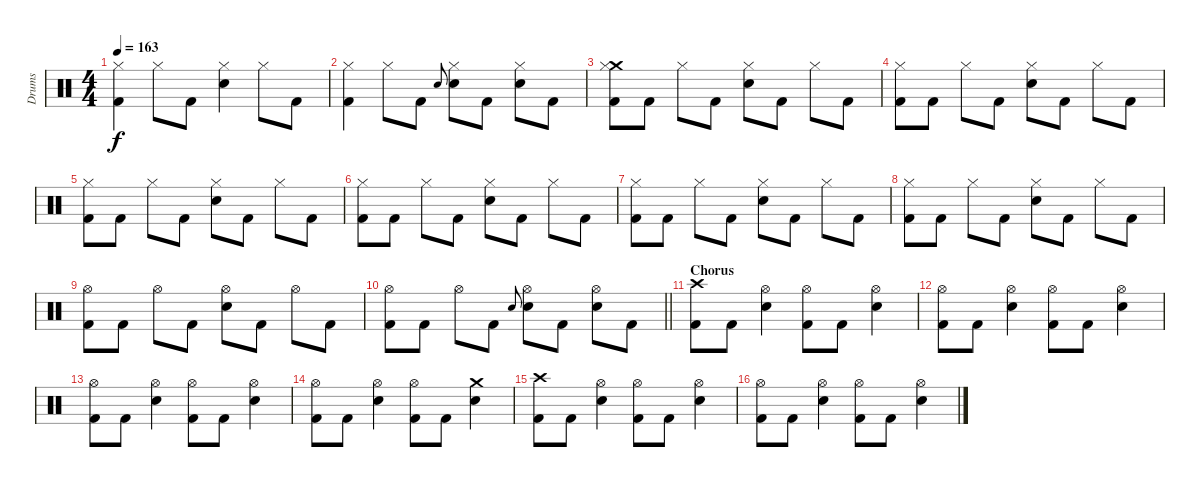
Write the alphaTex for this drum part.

\track ("Drums" "Drums") {instrument percussion}
\staff {score}
\articulation defaults
\ts (4 4)
\tempo 163
\clef neutral
\ks c
("Hi-Hat (closed)" "Kick (hit) 2").4{dy f} "Hi-Hat (closed)".8 "Kick (hit) 2".8 ("Hi-Hat (closed)" "Snare (hit) 2").4 "Hi-Hat (closed)".8 "Kick (hit) 2".8 |
("Hi-Hat (closed)" "Kick (hit) 2").4 "Hi-Hat (closed)".8 "Kick (hit) 2".8 "Snare (hit) 2".8{gr onbeat} ("Hi-Hat (closed)" "Snare (hit) 2").8 "Kick (hit) 2".8 ("Hi-Hat (closed)" "Snare (hit) 2").8 "Kick (hit) 2".8 |
("Crash medium (hit)" "Hi-Hat (closed)" "Kick (hit) 2").8 "Kick (hit) 2".8 "Hi-Hat (closed)".8 "Kick (hit) 2".8 ("Hi-Hat (closed)" "Snare (hit) 2").8 "Kick (hit) 2".8 "Hi-Hat (closed)".8 "Kick (hit) 2".8 |
("Hi-Hat (closed)" "Kick (hit) 2").8 "Kick (hit) 2".8 "Hi-Hat (closed)".8 "Kick (hit) 2".8 ("Hi-Hat (closed)" "Snare (hit) 2").8 "Kick (hit) 2".8 "Hi-Hat (closed)".8 "Kick (hit) 2".8 |
("Hi-Hat (closed)" "Kick (hit) 2").8 "Kick (hit) 2".8 "Hi-Hat (closed)".8 "Kick (hit) 2".8 ("Hi-Hat (closed)" "Snare (hit) 2").8 "Kick (hit) 2".8 "Hi-Hat (closed)".8 "Kick (hit) 2".8 |
("Hi-Hat (closed)" "Kick (hit) 2").8 "Kick (hit) 2".8 "Hi-Hat (closed)".8 "Kick (hit) 2".8 ("Hi-Hat (closed)" "Snare (hit) 2").8 "Kick (hit) 2".8 "Hi-Hat (closed)".8 "Kick (hit) 2".8 |
("Hi-Hat (closed)" "Kick (hit) 2").8 "Kick (hit) 2".8 "Hi-Hat (closed)".8 "Kick (hit) 2".8 ("Hi-Hat (closed)" "Snare (hit) 2").8 "Kick (hit) 2".8 "Hi-Hat (closed)".8 "Kick (hit) 2".8 |
("Hi-Hat (closed)" "Kick (hit) 2").8 "Kick (hit) 2".8 "Hi-Hat (closed)".8 "Kick (hit) 2".8 ("Hi-Hat (closed)" "Snare (hit) 2").8 "Kick (hit) 2".8 "Hi-Hat (closed)".8 "Kick (hit) 2".8 |
("Hi-Hat (open)" "Kick (hit) 2").8 "Kick (hit) 2".8 "Hi-Hat (open)".8 "Kick (hit) 2".8 ("Hi-Hat (open)" "Snare (hit) 2").8 "Kick (hit) 2".8 "Hi-Hat (open)".8 "Kick (hit) 2".8 |
\barLineRight lightlight
("Hi-Hat (open)" "Kick (hit) 2").8 "Kick (hit) 2".8 "Hi-Hat (open)".8 "Kick (hit) 2".8 "Snare (hit) 2".8{gr onbeat} ("Hi-Hat (open)" "Snare (hit) 2").8 "Kick (hit) 2".8 ("Hi-Hat (open)" "Snare (hit) 2").8 "Kick (hit) 2".8 |
\section ("" "Chorus")
("Crash high (hit)" "Kick (hit) 2").8 "Kick (hit) 2".8 ("Hi-Hat (open)" "Snare (hit) 2").4 ("Hi-Hat (open)" "Kick (hit) 2").8 "Kick (hit) 2".8 ("Hi-Hat (open)" "Snare (hit) 2").4 |
("Hi-Hat (open)" "Kick (hit) 2").8 "Kick (hit) 2".8 ("Hi-Hat (open)" "Snare (hit) 2").4 ("Hi-Hat (open)" "Kick (hit) 2").8 "Kick (hit) 2".8 ("Hi-Hat (open)" "Snare (hit) 2").4 |
("Hi-Hat (open)" "Kick (hit) 2").8 "Kick (hit) 2".8 ("Hi-Hat (open)" "Snare (hit) 2").4 ("Hi-Hat (open)" "Kick (hit) 2").8 "Kick (hit) 2".8 ("Hi-Hat (open)" "Snare (hit) 2").4 |
("Hi-Hat (open)" "Kick (hit) 2").8 "Kick (hit) 2".8 ("Hi-Hat (open)" "Snare (hit) 2").4 ("Hi-Hat (open)" "Kick (hit) 2").8 "Kick (hit) 2".8 ("Crash medium (hit)" "Snare (hit) 2").4 |
("Crash high (hit)" "Kick (hit) 2").8 "Kick (hit) 2".8 ("Hi-Hat (open)" "Snare (hit) 2").4 ("Hi-Hat (open)" "Kick (hit) 2").8 "Kick (hit) 2".8 ("Hi-Hat (open)" "Snare (hit) 2").4 |
("Hi-Hat (open)" "Kick (hit) 2").8 "Kick (hit) 2".8 ("Hi-Hat (open)" "Snare (hit) 2").4 ("Hi-Hat (open)" "Kick (hit) 2").8 "Kick (hit) 2".8 ("Hi-Hat (open)" "Snare (hit) 2").4
